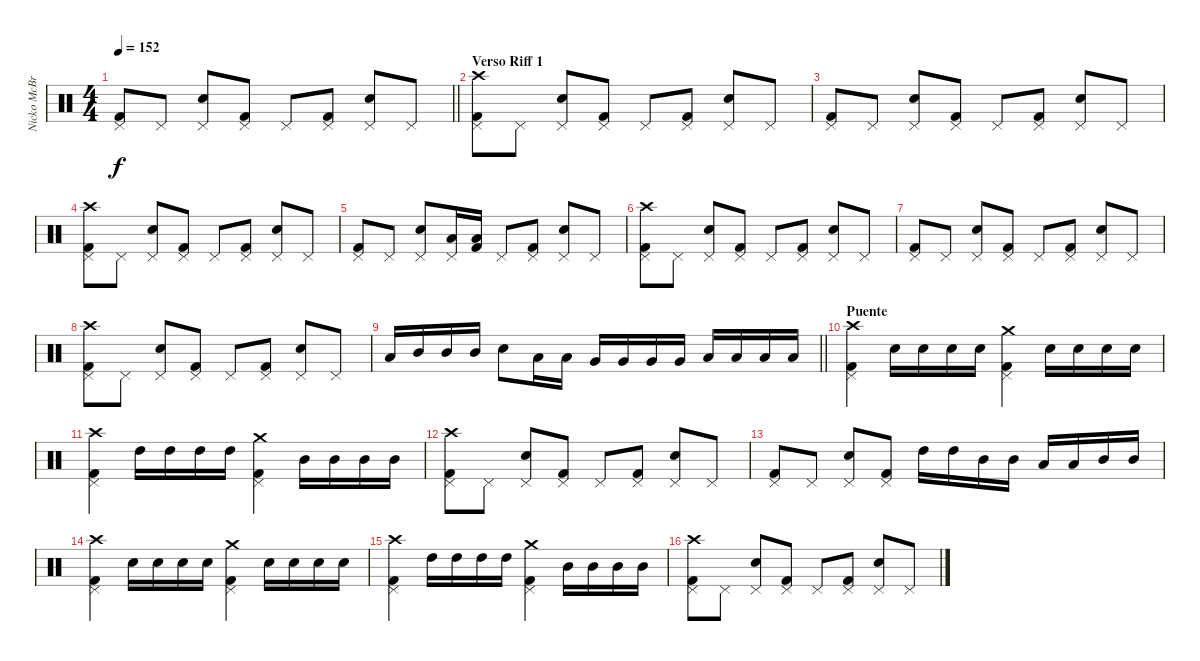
\track ("Nicko McBrain" "Nicko McBr") {instrument percussion}
\staff {score}
\articulation defaults
\ts (4 4)
\tempo 152
\clef neutral
\barLineRight lightlight
\ks c
("Kick (hit) 2" "Pedal Hi-Hat (hit)").8{dy f} "Pedal Hi-Hat (hit)".8 ("Snare (hit) 2" "Pedal Hi-Hat (hit)").8 ("Kick (hit) 2" "Pedal Hi-Hat (hit)").8 "Pedal Hi-Hat (hit)".8 ("Kick (hit) 2" "Pedal Hi-Hat (hit)").8 ("Snare (hit) 2" "Pedal Hi-Hat (hit)").8 "Pedal Hi-Hat (hit)".8 |
\section ("" "Verso Riff 1")
("Kick (hit) 2" "Pedal Hi-Hat (hit)" "Crash high (hit)").8 "Pedal Hi-Hat (hit)".8 ("Snare (hit) 2" "Pedal Hi-Hat (hit)").8 ("Kick (hit) 2" "Pedal Hi-Hat (hit)").8 "Pedal Hi-Hat (hit)".8 ("Kick (hit) 2" "Pedal Hi-Hat (hit)").8 ("Snare (hit) 2" "Pedal Hi-Hat (hit)").8 "Pedal Hi-Hat (hit)".8 |
("Kick (hit) 2" "Pedal Hi-Hat (hit)").8 "Pedal Hi-Hat (hit)".8 ("Snare (hit) 2" "Pedal Hi-Hat (hit)").8 ("Kick (hit) 2" "Pedal Hi-Hat (hit)").8 "Pedal Hi-Hat (hit)".8 ("Kick (hit) 2" "Pedal Hi-Hat (hit)").8 ("Snare (hit) 2" "Pedal Hi-Hat (hit)").8 "Pedal Hi-Hat (hit)".8 |
("Kick (hit) 2" "Pedal Hi-Hat (hit)" "Crash high (hit)").8 "Pedal Hi-Hat (hit)".8 ("Snare (hit) 2" "Pedal Hi-Hat (hit)").8 ("Kick (hit) 2" "Pedal Hi-Hat (hit)").8 "Pedal Hi-Hat (hit)".8 ("Kick (hit) 2" "Pedal Hi-Hat (hit)").8 ("Snare (hit) 2" "Pedal Hi-Hat (hit)").8 "Pedal Hi-Hat (hit)".8 |
("Kick (hit) 2" "Pedal Hi-Hat (hit)").8 "Pedal Hi-Hat (hit)".8 ("Snare (hit) 2" "Pedal Hi-Hat (hit)").8 ("Low Tom (hit)" "Pedal Hi-Hat (hit)").16 ("Low Tom (hit)" "Kick (hit) 2").16 "Pedal Hi-Hat (hit)".8 ("Kick (hit) 2" "Pedal Hi-Hat (hit)").8 ("Snare (hit) 2" "Pedal Hi-Hat (hit)").8 "Pedal Hi-Hat (hit)".8 |
("Kick (hit) 2" "Pedal Hi-Hat (hit)" "Crash high (hit)").8 "Pedal Hi-Hat (hit)".8 ("Snare (hit) 2" "Pedal Hi-Hat (hit)").8 ("Kick (hit) 2" "Pedal Hi-Hat (hit)").8 "Pedal Hi-Hat (hit)".8 ("Kick (hit) 2" "Pedal Hi-Hat (hit)").8 ("Snare (hit) 2" "Pedal Hi-Hat (hit)").8 "Pedal Hi-Hat (hit)".8 |
("Kick (hit) 2" "Pedal Hi-Hat (hit)").8 "Pedal Hi-Hat (hit)".8 ("Snare (hit) 2" "Pedal Hi-Hat (hit)").8 ("Kick (hit) 2" "Pedal Hi-Hat (hit)").8 "Pedal Hi-Hat (hit)".8 ("Kick (hit) 2" "Pedal Hi-Hat (hit)").8 ("Snare (hit) 2" "Pedal Hi-Hat (hit)").8 "Pedal Hi-Hat (hit)".8 |
("Kick (hit) 2" "Pedal Hi-Hat (hit)" "Crash high (hit)").8 "Pedal Hi-Hat (hit)".8 ("Snare (hit) 2" "Pedal Hi-Hat (hit)").8 ("Kick (hit) 2" "Pedal Hi-Hat (hit)").8 "Pedal Hi-Hat (hit)".8 ("Kick (hit) 2" "Pedal Hi-Hat (hit)").8 ("Snare (hit) 2" "Pedal Hi-Hat (hit)").8 "Pedal Hi-Hat (hit)".8 |
\barLineRight lightlight "Low Tom (hit)".16 "Mid Tom (hit)".16 "Mid Tom (hit)".16 "Mid Tom (hit)".16 "Snare (hit) 2".8 "Low Tom (hit)".16 "Low Tom (hit)".16 "Very Low Tom (hit)".16 "Very Low Tom (hit)".16 "Very Low Tom (hit)".16 "Very Low Tom (hit)".16 "Low Floor Tom (hit)".16 "Low Floor Tom (hit)".16 "Low Floor Tom (hit)".16 "Low Floor Tom (hit)".16
|
\section ("" "Puente")
("Kick (hit) 2" "Pedal Hi-Hat (hit)" "Crash high (hit)").4 "Snare (hit) 2".16 "Snare (hit) 2".16 "Snare (hit) 2".16 "Snare (hit) 2".16 ("Kick (hit) 2" "Pedal Hi-Hat (hit)" "Crash medium (hit)").4 "Snare (hit) 2".16 "Snare (hit) 2".16 "Snare (hit) 2".16 "Snare (hit) 2".16 |
("Kick (hit) 2" "Pedal Hi-Hat (hit)" "Crash high (hit)").4 "High Tom (hit)".16 "High Tom (hit)".16 "High Tom (hit)".16 "High Tom (hit)".16 ("Kick (hit) 2" "Pedal Hi-Hat (hit)" "Crash medium (hit)").4 "Mid Tom (hit)".16 "Mid Tom (hit)".16 "Mid Tom (hit)".16 "Mid Tom (hit)".16 |
("Kick (hit) 2" "Pedal Hi-Hat (hit)" "Crash high (hit)").8 "Pedal Hi-Hat (hit)".8 ("Snare (hit) 2" "Pedal Hi-Hat (hit)").8 ("Kick (hit) 2" "Pedal Hi-Hat (hit)").8 "Pedal Hi-Hat (hit)".8 ("Kick (hit) 2" "Pedal Hi-Hat (hit)").8 ("Snare (hit) 2" "Pedal Hi-Hat (hit)").8 "Pedal Hi-Hat (hit)".8 |
("Kick (hit) 2" "Pedal Hi-Hat (hit)").8 "Pedal Hi-Hat (hit)".8 ("Snare (hit) 2" "Pedal Hi-Hat (hit)").8 ("Kick (hit) 2" "Pedal Hi-Hat (hit)").8 "High Tom (hit)".16 "High Tom (hit)".16 "Mid Tom (hit)".16 "Mid Tom (hit)".16 "Low Tom (hit)".16 "Low Tom (hit)".16 "Mid Tom (hit)".16 "Mid Tom (hit)".16 |
("Kick (hit) 2" "Pedal Hi-Hat (hit)" "Crash high (hit)").4 "Snare (hit) 2".16 "Snare (hit) 2".16 "Snare (hit) 2".16 "Snare (hit) 2".16 ("Kick (hit) 2" "Pedal Hi-Hat (hit)" "Crash medium (hit)").4 "Snare (hit) 2".16 "Snare (hit) 2".16 "Snare (hit) 2".16 "Snare (hit) 2".16 |
("Kick (hit) 2" "Pedal Hi-Hat (hit)" "Crash high (hit)").4 "High Tom (hit)".16 "High Tom (hit)".16 "High Tom (hit)".16 "High Tom (hit)".16 ("Kick (hit) 2" "Pedal Hi-Hat (hit)" "Crash medium (hit)").4 "Mid Tom (hit)".16 "Mid Tom (hit)".16 "Mid Tom (hit)".16 "Mid Tom (hit)".16 |
("Kick (hit) 2" "Pedal Hi-Hat (hit)" "Crash high (hit)").8 "Pedal Hi-Hat (hit)".8 ("Snare (hit) 2" "Pedal Hi-Hat (hit)").8 ("Kick (hit) 2" "Pedal Hi-Hat (hit)").8 "Pedal Hi-Hat (hit)".8 ("Kick (hit) 2" "Pedal Hi-Hat (hit)").8 ("Snare (hit) 2" "Pedal Hi-Hat (hit)").8 "Pedal Hi-Hat (hit)".8
